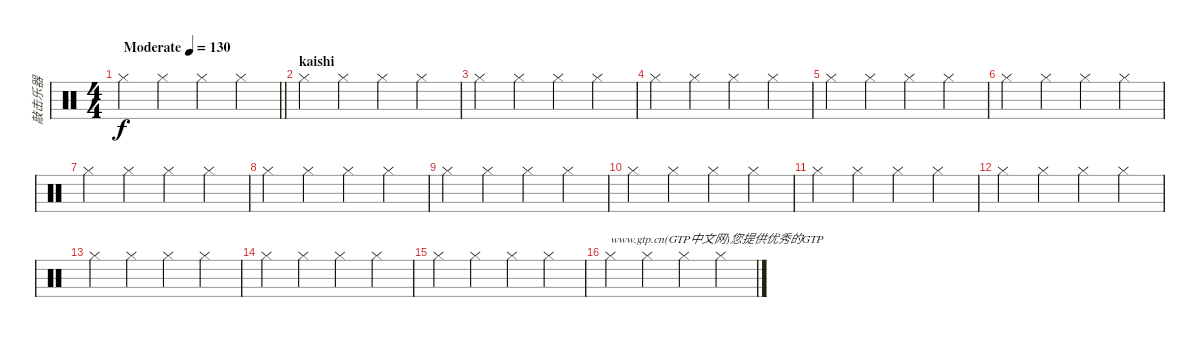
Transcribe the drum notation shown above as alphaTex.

\track ("敲击乐器" "敲击乐器") {instrument percussion}
\staff {score}
\articulation defaults
\ts (4 4)
\tempo (130 "Moderate")
\clef neutral
\barLineRight lightlight
\ks c "Hi-Hat (closed)".4{dy f} "Hi-Hat (closed)".4 "Hi-Hat (closed)".4 "Hi-Hat (closed)".4
|
\section ("" "kaishi")
"Hi-Hat (closed)".4 "Hi-Hat (closed)".4 "Hi-Hat (closed)".4 "Hi-Hat (closed)".4 |
"Hi-Hat (closed)".4 "Hi-Hat (closed)".4 "Hi-Hat (closed)".4 "Hi-Hat (closed)".4 |
"Hi-Hat (closed)".4 "Hi-Hat (closed)".4 "Hi-Hat (closed)".4 "Hi-Hat (closed)".4 |
"Hi-Hat (closed)".4 "Hi-Hat (closed)".4 "Hi-Hat (closed)".4 "Hi-Hat (closed)".4 |
"Hi-Hat (closed)".4 "Hi-Hat (closed)".4 "Hi-Hat (closed)".4 "Hi-Hat (closed)".4 |
"Hi-Hat (closed)".4 "Hi-Hat (closed)".4 "Hi-Hat (closed)".4 "Hi-Hat (closed)".4 |
"Hi-Hat (closed)".4 "Hi-Hat (closed)".4 "Hi-Hat (closed)".4 "Hi-Hat (closed)".4 |
"Hi-Hat (closed)".4 "Hi-Hat (closed)".4 "Hi-Hat (closed)".4 "Hi-Hat (closed)".4 |
"Hi-Hat (closed)".4 "Hi-Hat (closed)".4 "Hi-Hat (closed)".4 "Hi-Hat (closed)".4 |
"Hi-Hat (closed)".4 "Hi-Hat (closed)".4 "Hi-Hat (closed)".4 "Hi-Hat (closed)".4 |
"Hi-Hat (closed)".4 "Hi-Hat (closed)".4 "Hi-Hat (closed)".4 "Hi-Hat (closed)".4 |
"Hi-Hat (closed)".4 "Hi-Hat (closed)".4 "Hi-Hat (closed)".4 "Hi-Hat (closed)".4 |
"Hi-Hat (closed)".4 "Hi-Hat (closed)".4 "Hi-Hat (closed)".4 "Hi-Hat (closed)".4 |
"Hi-Hat (closed)".4 "Hi-Hat (closed)".4 "Hi-Hat (closed)".4 "Hi-Hat (closed)".4 |
"Hi-Hat (closed)".4{txt "www.gtp.cn(GTP中文网)您提供优秀的GTP"} "Hi-Hat (closed)".4 "Hi-Hat (closed)".4 "Hi-Hat (closed)".4
